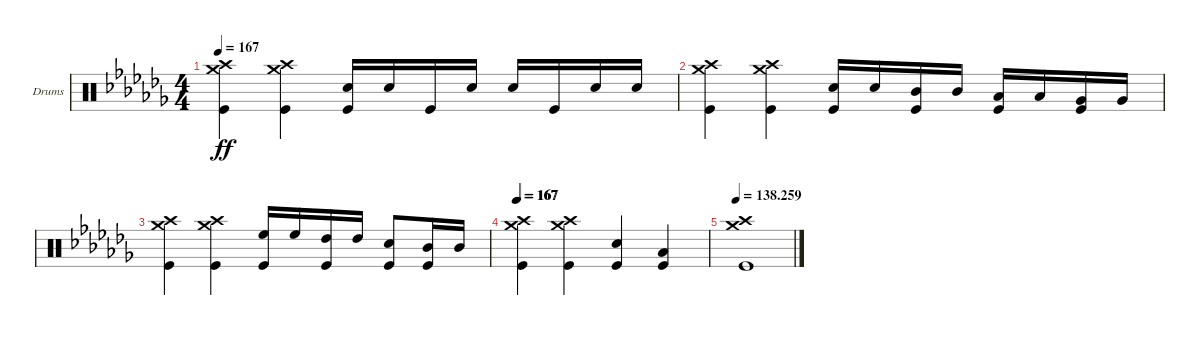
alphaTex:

\defaultSystemsLayout 4
\bracketExtendMode groupsimilarinstruments
\firstSystemTrackNameOrientation horizontal
\otherSystemsTrackNameOrientation horizontal
\track ("Drumkit" "Drums") {instrument percussion}
\staff {score}
\articulation defaults
\ts (4 4)
\tempo 167
\clef neutral
\ks abminor
("Crash high (hit)" "Kick (hit)" "Crash medium (hit)").4{dy ff} ("Crash high (hit)" "Kick (hit)" "Crash medium (hit)").4 ("Snare (hit) 2" "Kick (hit)").16 "Snare (hit) 2".16 "Kick (hit)".16 "Snare (hit) 2".16 "Snare (hit) 2".16 "Kick (hit)".16 "Snare (hit) 2".16 "Snare (hit) 2".16 |
("Crash high (hit)" "Kick (hit)" "Crash medium (hit)").4 ("Crash high (hit)" "Kick (hit)" "Crash medium (hit)").4 ("Snare (hit) 2" "Kick (hit)").16 "Snare (hit) 2".16 ("Kick (hit)" "Mid Tom (hit)").16 "Mid Tom (hit)".16 ("Kick (hit)" "Low Tom (hit)").16 "Low Tom (hit)".16 ("Kick (hit)" "Very Low Tom (hit)").16 "Very Low Tom (hit)".16 |
("Crash high (hit)" "Kick (hit)" "Crash medium (hit)").4 ("Crash high (hit)" "Kick (hit)" "Crash medium (hit)").4 ("Kick (hit)" "High Floor Tom (hit)").16 "High Floor Tom (hit)".16 ("Kick (hit)" "High Tom (hit)").16 "High Tom (hit)".16 ("Snare (hit) 2" "Kick (hit)").8 ("Kick (hit)" "Mid Tom (hit)").16 "Mid Tom (hit)".16 |
\tempo 167
\tempo (167 0.00625)
("Crash high (hit)" "Kick (hit)" "Crash medium (hit)").4 ("Crash high (hit)" "Kick (hit)" "Crash medium (hit)").4 ("Snare (hit) 2" "Kick (hit)").4 ("Kick (hit)" "Low Tom (hit)").4 |
\tempo
138.259 ("Crash high (hit)" "Kick (hit)" "Crash medium (hit)").1
